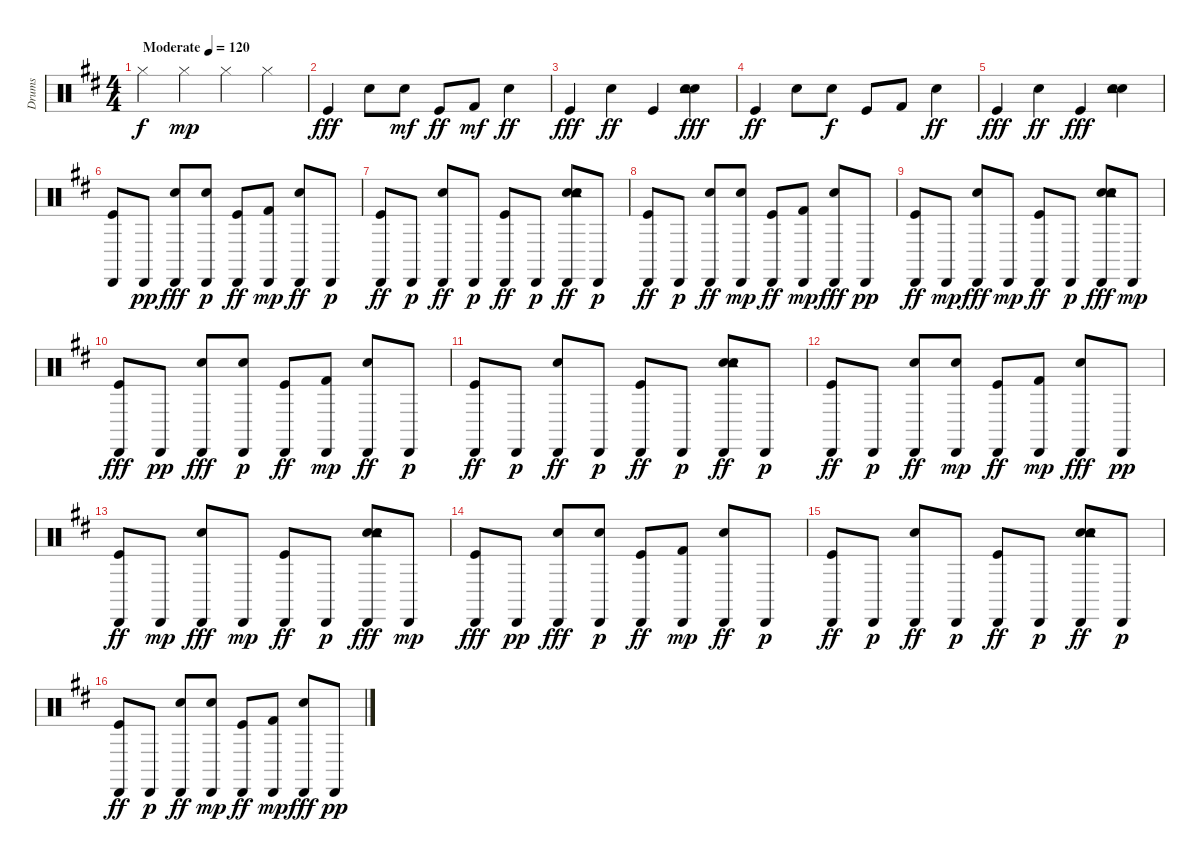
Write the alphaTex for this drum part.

\track ("Drums" "Drums") {instrument percussion}
\staff {score}
\articulation defaults
\ts (4 4)
\tempo (120 "Moderate")
\clef neutral
\ks d "Hi-Hat (closed)".4{dy f} "Hi-Hat (closed)".4{dy mp} "Hi-Hat (closed)".4 "Hi-Hat (closed)".4
|
"Kick (hit)".4{dy fff} "Electric Snare (hit)".8 "Electric Snare (hit)".8{dy mf} "Kick (hit)".8{dy ff} "Kick (hit) 2".8{dy mf} "Electric Snare (hit)".4{dy ff} |
"Kick (hit)".4{dy fff} "Electric Snare (hit)".4{dy ff} "Kick (hit)".4 ("Hand Clap (hit)" "Electric Snare (hit)" "Tambourine (hit)").4{dy fff} |
"Kick (hit)".4{dy ff} "Electric Snare (hit)".8 "Electric Snare (hit)".8{dy f} "Kick (hit)".8 "Kick (hit) 2".8 "Electric Snare (hit)".4{dy ff} |
"Kick (hit)".4{dy fff} "Electric Snare (hit)".4{dy ff} "Kick (hit)".4{dy fff} ("Hand Clap (hit)" "Electric Snare (hit)" "Tambourine (hit)").4 |
("Kick (hit)" "Cabasa (hit)").8 "Cabasa (hit)".8{dy pp} ("Electric Snare (hit)" "Cabasa (hit)").8{dy fff} ("Electric Snare (hit)" "Cabasa (hit)").8{dy p} ("Kick (hit)" "Cabasa (hit)").8{dy ff} ("Kick (hit) 2" "Cabasa (hit)").8{dy mp} ("Electric Snare (hit)" "Cabasa (hit)").8{dy ff} "Cabasa (hit)".8{dy p} |
("Kick (hit)" "Cabasa (hit)").8{dy ff} "Cabasa (hit)".8{dy p} ("Electric Snare (hit)" "Cabasa (hit)").8{dy ff} "Cabasa (hit)".8{dy p} ("Kick (hit)" "Cabasa (hit)").8{dy ff} "Cabasa (hit)".8{dy p} ("Hand Clap (hit)" "Electric Snare (hit)" "Tambourine (hit)" "Cabasa (hit)").8{dy ff} "Cabasa (hit)".8{dy p} |
("Kick (hit)" "Cabasa (hit)").8{dy ff} "Cabasa (hit)".8{dy p} ("Electric Snare (hit)" "Cabasa (hit)").8{dy ff} ("Electric Snare (hit)" "Cabasa (hit)").8{dy mp} ("Kick (hit)" "Cabasa (hit)").8{dy ff} ("Kick (hit) 2" "Cabasa (hit)").8{dy mp} ("Electric Snare (hit)" "Cabasa (hit)").8{dy fff} "Cabasa (hit)".8{dy pp} |
("Kick (hit)" "Cabasa (hit)").8{dy ff} "Cabasa (hit)".8{dy mp} ("Electric Snare (hit)" "Cabasa (hit)").8{dy fff} "Cabasa (hit)".8{dy mp} ("Kick (hit)" "Cabasa (hit)").8{dy ff} "Cabasa (hit)".8{dy p} ("Hand Clap (hit)" "Electric Snare (hit)" "Tambourine (hit)" "Cabasa (hit)").8{dy fff} "Cabasa (hit)".8{dy mp} |
("Kick (hit)" "Cabasa (hit)").8{dy fff} "Cabasa (hit)".8{dy pp} ("Electric Snare (hit)" "Cabasa (hit)").8{dy fff} ("Electric Snare (hit)" "Cabasa (hit)").8{dy p} ("Kick (hit)" "Cabasa (hit)").8{dy ff} ("Kick (hit) 2" "Cabasa (hit)").8{dy mp} ("Electric Snare (hit)" "Cabasa (hit)").8{dy ff} "Cabasa (hit)".8{dy p} |
("Kick (hit)" "Cabasa (hit)").8{dy ff} "Cabasa (hit)".8{dy p} ("Electric Snare (hit)" "Cabasa (hit)").8{dy ff} "Cabasa (hit)".8{dy p} ("Kick (hit)" "Cabasa (hit)").8{dy ff} "Cabasa (hit)".8{dy p} ("Hand Clap (hit)" "Electric Snare (hit)" "Tambourine (hit)" "Cabasa (hit)").8{dy ff} "Cabasa (hit)".8{dy p} |
("Kick (hit)" "Cabasa (hit)").8{dy ff} "Cabasa (hit)".8{dy p} ("Electric Snare (hit)" "Cabasa (hit)").8{dy ff} ("Electric Snare (hit)" "Cabasa (hit)").8{dy mp} ("Kick (hit)" "Cabasa (hit)").8{dy ff} ("Kick (hit) 2" "Cabasa (hit)").8{dy mp} ("Electric Snare (hit)" "Cabasa (hit)").8{dy fff} "Cabasa (hit)".8{dy pp} |
("Kick (hit)" "Cabasa (hit)").8{dy ff} "Cabasa (hit)".8{dy mp} ("Electric Snare (hit)" "Cabasa (hit)").8{dy fff} "Cabasa (hit)".8{dy mp} ("Kick (hit)" "Cabasa (hit)").8{dy ff} "Cabasa (hit)".8{dy p} ("Hand Clap (hit)" "Electric Snare (hit)" "Tambourine (hit)" "Cabasa (hit)").8{dy fff} "Cabasa (hit)".8{dy mp} |
("Kick (hit)" "Cabasa (hit)").8{dy fff} "Cabasa (hit)".8{dy pp} ("Electric Snare (hit)" "Cabasa (hit)").8{dy fff} ("Electric Snare (hit)" "Cabasa (hit)").8{dy p} ("Kick (hit)" "Cabasa (hit)").8{dy ff} ("Kick (hit) 2" "Cabasa (hit)").8{dy mp} ("Electric Snare (hit)" "Cabasa (hit)").8{dy ff} "Cabasa (hit)".8{dy p} |
("Kick (hit)" "Cabasa (hit)").8{dy ff} "Cabasa (hit)".8{dy p} ("Electric Snare (hit)" "Cabasa (hit)").8{dy ff} "Cabasa (hit)".8{dy p} ("Kick (hit)" "Cabasa (hit)").8{dy ff} "Cabasa (hit)".8{dy p} ("Hand Clap (hit)" "Electric Snare (hit)" "Tambourine (hit)" "Cabasa (hit)").8{dy ff} "Cabasa (hit)".8{dy p} |
("Kick (hit)" "Cabasa (hit)").8{dy ff} "Cabasa (hit)".8{dy p} ("Electric Snare (hit)" "Cabasa (hit)").8{dy ff} ("Electric Snare (hit)" "Cabasa (hit)").8{dy mp} ("Kick (hit)" "Cabasa (hit)").8{dy ff} ("Kick (hit) 2" "Cabasa (hit)").8{dy mp} ("Electric Snare (hit)" "Cabasa (hit)").8{dy fff} "Cabasa (hit)".8{dy pp}
